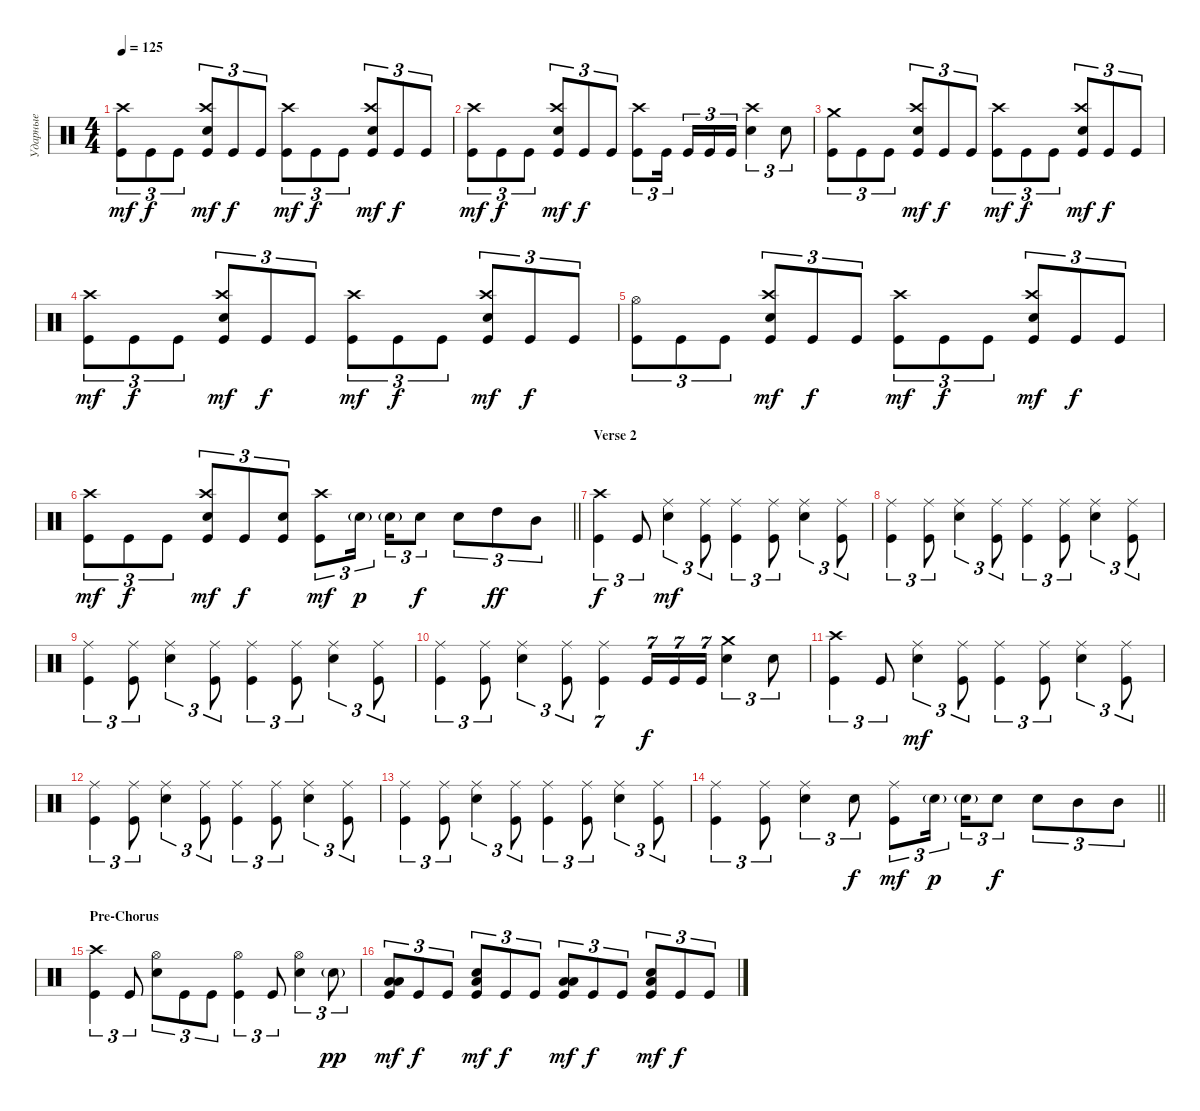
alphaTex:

\track ("Ударные" "Ударные") {instrument percussion}
\staff {score}
\articulation defaults
\ts (4 4)
\tempo 125
\clef neutral
\ks c
("Kick (hit)" "Crash high (hit)").8{tu (3 2) dy mf} "Kick (hit)".8{tu (3 2) dy f} "Kick (hit)".8{tu (3 2)} ("Kick (hit)" "Snare (hit) 2" "Crash high (hit)").8{tu (3 2) dy mf} "Kick (hit)".8{tu (3 2) dy f} "Kick (hit)".8{tu (3 2)} ("Kick (hit)" "Crash high (hit)").8{tu (3 2) dy mf} "Kick (hit)".8{tu (3 2) dy f} "Kick (hit)".8{tu (3 2)} ("Kick (hit)" "Snare (hit) 2" "Crash high (hit)").8{tu (3 2) dy mf} "Kick (hit)".8{tu (3 2) dy f} "Kick (hit)".8{tu (3 2)} |
("Kick (hit)" "Crash high (hit)").8{tu (3 2) dy mf} "Kick (hit)".8{tu (3 2) dy f} "Kick (hit)".8{tu (3 2)} ("Kick (hit)" "Snare (hit) 2" "Crash high (hit)").8{tu (3 2) dy mf} "Kick (hit)".8{tu (3 2) dy f} "Kick (hit)".8{tu (3 2)} ("Kick (hit)" "Crash high (hit)").8{tu (3 2)} "Kick (hit)".16{tu (3 2) beam splitsecondary} "Kick (hit)".16{tu (3 2)} "Kick (hit)".16{tu (3 2)} "Kick (hit)".16{tu (3 2)} ("Snare (hit) 2" "Crash high (hit)").4{tu (3 2)} "Snare (hit) 2".8{tu (3 2)} |
("Kick (hit)" "Crash medium (hit)").8{tu (3 2)} "Kick (hit)".8{tu (3 2)} "Kick (hit)".8{tu (3 2)} ("Kick (hit)" "Snare (hit) 2" "Crash high (hit)").8{tu (3 2) dy mf} "Kick (hit)".8{tu (3 2) dy f} "Kick (hit)".8{tu (3 2)} ("Kick (hit)" "Crash high (hit)").8{tu (3 2) dy mf} "Kick (hit)".8{tu (3 2) dy f} "Kick (hit)".8{tu (3 2)} ("Kick (hit)" "Snare (hit) 2" "Crash high (hit)").8{tu (3 2) dy mf} "Kick (hit)".8{tu (3 2) dy f} "Kick (hit)".8{tu (3 2)} |
("Kick (hit)" "Crash high (hit)").8{tu (3 2) dy mf} "Kick (hit)".8{tu (3 2) dy f} "Kick (hit)".8{tu (3 2)} ("Kick (hit)" "Snare (hit) 2" "Crash high (hit)").8{tu (3 2) dy mf} "Kick (hit)".8{tu (3 2) dy f} "Kick (hit)".8{tu (3 2)} ("Kick (hit)" "Crash high (hit)").8{tu (3 2) dy mf} "Kick (hit)".8{tu (3 2) dy f} "Kick (hit)".8{tu (3 2)} ("Kick (hit)" "Snare (hit) 2" "Crash high (hit)").8{tu (3 2) dy mf} "Kick (hit)".8{tu (3 2) dy f} "Kick (hit)".8{tu (3 2)} |
("Kick (hit)" "Hi-Hat (open)").8{tu (3 2)} "Kick (hit)".8{tu (3 2)} "Kick (hit)".8{tu (3 2)} ("Kick (hit)" "Snare (hit) 2" "Crash high (hit)").8{tu (3 2) dy mf} "Kick (hit)".8{tu (3 2) dy f} "Kick (hit)".8{tu (3 2)} ("Kick (hit)" "Crash high (hit)").8{tu (3 2) dy mf} "Kick (hit)".8{tu (3 2) dy f} "Kick (hit)".8{tu (3 2)} ("Kick (hit)" "Snare (hit) 2" "Crash high (hit)").8{tu (3 2) dy mf} "Kick (hit)".8{tu (3 2) dy f} "Kick (hit)".8{tu (3 2)} |
\barLineRight lightlight
("Kick (hit)" "Crash high (hit)").8{tu (3 2) dy mf} "Kick (hit)".8{tu (3 2) dy f} "Kick (hit)".8{tu (3 2)} ("Kick (hit)" "Snare (hit) 2" "Crash high (hit)").8{tu (3 2) dy mf} "Kick (hit)".8{tu (3 2) dy f} ("Kick (hit)" "Snare (hit) 2").8{tu (3 2)} ("Kick (hit)" "Crash high (hit)").8{tu (3 2) dy mf} "Snare (hit) 2"{g}.16{tu (3 2) dy p beam splitsecondary} "Snare (hit) 2"{g}.16{tu (3 2)} "Snare (hit) 2".8{tu (3 2) dy f} "Snare (hit) 2".8{tu (3 2)} "High Tom (hit)".8{tu (3 2) dy ff} "Mid Tom (hit)".8{tu (3 2)} |
\section ("" "Verse 2")
("Kick (hit)" "Crash high (hit)").4{tu (3 2) dy f} "Kick (hit)".8{tu (3 2)} ("Snare (hit) 2" "Ride (middle)").4{tu (3 2) dy mf} ("Kick (hit)" "Ride (middle)").8{tu (3 2)} ("Kick (hit)" "Ride (middle)").4{tu (3 2)} ("Kick (hit)" "Ride (middle)").8{tu (3 2)} ("Snare (hit) 2" "Ride (middle)").4{tu (3 2)} ("Kick (hit)" "Ride (middle)").8{tu (3 2)} |
("Kick (hit)" "Ride (middle)").4{tu (3 2)} ("Kick (hit)" "Ride (middle)").8{tu (3 2)} ("Snare (hit) 2" "Ride (middle)").4{tu (3 2)} ("Kick (hit)" "Ride (middle)").8{tu (3 2)} ("Kick (hit)" "Ride (middle)").4{tu (3 2)} ("Kick (hit)" "Ride (middle)").8{tu (3 2)} ("Snare (hit) 2" "Ride (middle)").4{tu (3 2)} ("Kick (hit)" "Ride (middle)").8{tu (3 2)} |
("Kick (hit)" "Ride (middle)").4{tu (3 2)} ("Kick (hit)" "Ride (middle)").8{tu (3 2)} ("Snare (hit) 2" "Ride (middle)").4{tu (3 2)} ("Kick (hit)" "Ride (middle)").8{tu (3 2)} ("Kick (hit)" "Ride (middle)").4{tu (3 2)} ("Kick (hit)" "Ride (middle)").8{tu (3 2)} ("Snare (hit) 2" "Ride (middle)").4{tu (3 2)} ("Kick (hit)" "Ride (middle)").8{tu (3 2)} |
("Kick (hit)" "Ride (middle)").4{tu (3 2)} ("Kick (hit)" "Ride (middle)").8{tu (3 2)} ("Snare (hit) 2" "Ride (middle)").4{tu (3 2)} ("Kick (hit)" "Ride (middle)").8{tu (3 2)} ("Kick (hit)" "Ride (middle)").4{tu (7 4)} "Kick (hit)".16{tu (7 4) dy f} "Kick (hit)".16{tu (7 4)} "Kick (hit)".16{tu (7 4)} ("Snare (hit) 2" "Crash medium (hit)").4{tu (3 2)} "Snare (hit) 2".8{tu (3 2)} |
("Kick (hit)" "Crash high (hit)").4{tu (3 2)} "Kick (hit)".8{tu (3 2)} ("Snare (hit) 2" "Ride (middle)").4{tu (3 2) dy mf} ("Kick (hit)" "Ride (middle)").8{tu (3 2)} ("Kick (hit)" "Ride (middle)").4{tu (3 2)} ("Kick (hit)" "Ride (middle)").8{tu (3 2)} ("Snare (hit) 2" "Ride (middle)").4{tu (3 2)} ("Kick (hit)" "Ride (middle)").8{tu (3 2)} |
("Kick (hit)" "Ride (middle)").4{tu (3 2)} ("Kick (hit)" "Ride (middle)").8{tu (3 2)} ("Snare (hit) 2" "Ride (middle)").4{tu (3 2)} ("Kick (hit)" "Ride (middle)").8{tu (3 2)} ("Kick (hit)" "Ride (middle)").4{tu (3 2)} ("Kick (hit)" "Ride (middle)").8{tu (3 2)} ("Snare (hit) 2" "Ride (middle)").4{tu (3 2)} ("Kick (hit)" "Ride (middle)").8{tu (3 2)} |
("Kick (hit)" "Ride (middle)").4{tu (3 2)} ("Kick (hit)" "Ride (middle)").8{tu (3 2)} ("Snare (hit) 2" "Ride (middle)").4{tu (3 2)} ("Kick (hit)" "Ride (middle)").8{tu (3 2)} ("Kick (hit)" "Ride (middle)").4{tu (3 2)} ("Kick (hit)" "Ride (middle)").8{tu (3 2)} ("Snare (hit) 2" "Ride (middle)").4{tu (3 2)} ("Kick (hit)" "Ride (middle)").8{tu (3 2)} |
\barLineRight lightlight
("Kick (hit)" "Ride (middle)").4{tu (3 2)} ("Kick (hit)" "Ride (middle)").8{tu (3 2)} ("Snare (hit) 2" "Ride (middle)").4{tu (3 2)} "Snare (hit) 2".8{tu (3 2) dy f} ("Kick (hit)" "Ride (middle)").8{tu (3 2) dy mf} "Snare (hit) 2"{g}.16{tu (3 2) dy p beam splitsecondary} "Snare (hit) 2"{g}.16{tu (3 2)} "Snare (hit) 2".8{tu (3 2) dy f} "Snare (hit) 2".8{tu (3 2)} "Mid Tom (hit)".8{tu (3 2)} "Mid Tom (hit)".8{tu (3 2)} |
\section ("" "Pre-Chorus")
("Kick (hit)" "Crash high (hit)").4{tu (3 2)} "Kick (hit)".8{tu (3 2)} ("Snare (hit) 2" "Hi-Hat (open)").8{tu (3 2)} "Kick (hit)".8{tu (3 2)} "Kick (hit)".8{tu (3 2)} ("Kick (hit)" "Hi-Hat (open)").4{tu (3 2)} "Kick (hit)".8{tu (3 2)} ("Snare (hit) 2" "Hi-Hat (open)").4{tu (3 2)} "Snare (hit) 2"{g}.8{tu (3 2) dy pp} |
("Kick (hit)" "Low Floor Tom (hit)" "Low Tom (hit)").8{tu (3 2) bd 120 dy mf} "Kick (hit)".8{tu (3 2) dy f} "Kick (hit)".8{tu (3 2)} ("Kick (hit)" "Snare (hit) 2" "Low Floor Tom (hit)").8{tu (3 2) bd 120 dy mf} "Kick (hit)".8{tu (3 2) dy f} "Kick (hit)".8{tu (3 2)} ("Kick (hit)" "Low Floor Tom (hit)" "Low Tom (hit)").8{tu (3 2) bd 120 dy mf} "Kick (hit)".8{tu (3 2) dy f} "Kick (hit)".8{tu (3 2)} ("Kick (hit)" "Snare (hit) 2" "Low Floor Tom (hit)").8{tu (3 2) bd 120 dy mf} "Kick (hit)".8{tu (3 2) dy f} "Kick (hit)".8{tu (3 2)}
